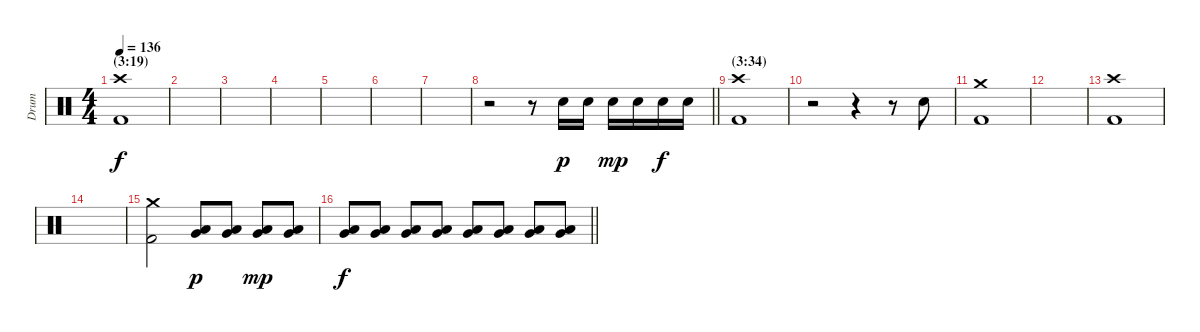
\track ("Drum" "Drum") {instrument percussion}
\staff {score}
\articulation defaults
\ts (4 4)
\section ("" "(3:19)")
\tempo 136
\clef neutral
\ks c
("Crash high (hit)" "Kick (hit) 2").1{dy f} |
|
|
|
|
|
|
\barLineRight lightlight
r.2 r.8 "Snare (hit) 2".16{dy p} "Snare (hit) 2".16 "Snare (hit) 2".16{dy mp} "Snare (hit) 2".16 "Snare (hit) 2".16{dy f} "Snare (hit) 2".16 |
\section ("" "(3:34)")
("Crash high (hit)" "Kick (hit) 2").1 |
r.2 r.4 r.8 "Snare (hit) 2".8 |
("Crash medium (hit)" "Kick (hit) 2").1 |
|
("Crash high (hit)" "Kick (hit) 2").1 |
|
("Crash medium (hit)" "Kick (hit) 2").2 ("Very Low Tom (hit)" "Low Floor Tom (hit)").8{dy p} ("Very Low Tom (hit)" "Low Floor Tom (hit)").8 ("Very Low Tom (hit)" "Low Floor Tom (hit)").8{dy mp} ("Very Low Tom (hit)" "Low Floor Tom (hit)").8 |
\barLineRight lightlight
("Very Low Tom (hit)" "Low Floor Tom (hit)").8{dy f} ("Very Low Tom (hit)" "Low Floor Tom (hit)").8 ("Very Low Tom (hit)" "Low Floor Tom (hit)").8 ("Very Low Tom (hit)" "Low Floor Tom (hit)").8 ("Very Low Tom (hit)" "Low Floor Tom (hit)").8 ("Very Low Tom (hit)" "Low Floor Tom (hit)").8 ("Very Low Tom (hit)" "Low Floor Tom (hit)").8 ("Very Low Tom (hit)" "Low Floor Tom (hit)").8
